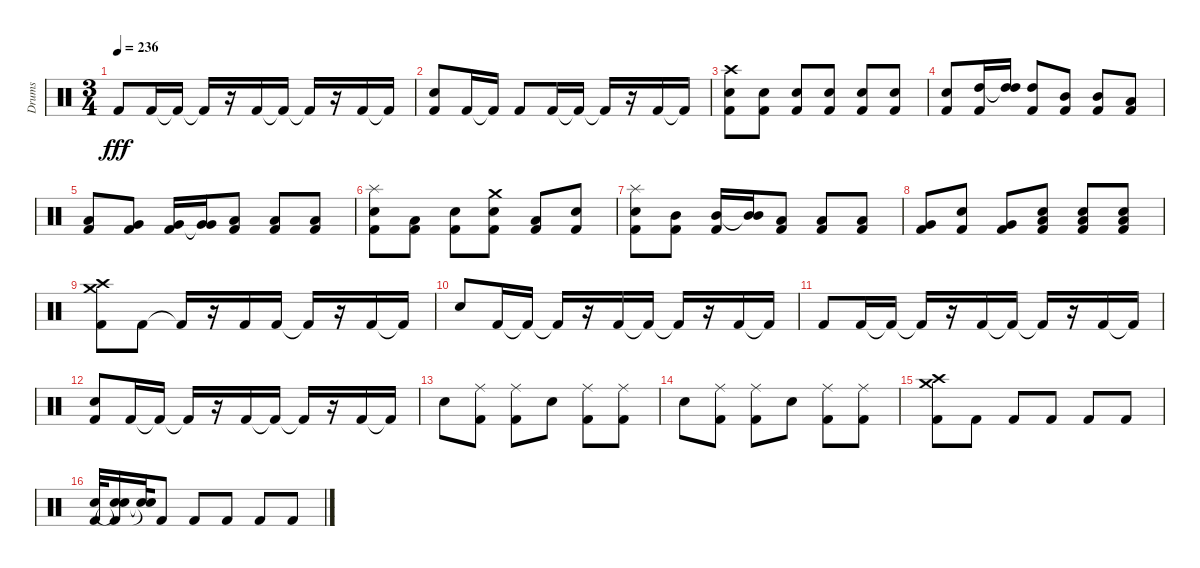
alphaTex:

\track ("Drums" "Drums") {instrument percussion}
\staff {score}
\articulation defaults
\ts (3 4)
\tempo 236
\clef neutral
\ks c "Kick (hit) 2".8{dy fff} "Kick (hit) 2".16 "Kick (hit) 2"{t}.16 "Kick (hit) 2"{t}.16
r.16 "Kick (hit) 2".16 "Kick (hit) 2"{t}.16 "Kick (hit) 2"{t}.16 r.16 "Kick (hit) 2".16 "Kick (hit) 2"{t}.16 |
("Kick (hit) 2" "Snare (hit) 2").8 "Kick (hit) 2".16 "Kick (hit) 2"{t}.16 "Kick (hit) 2".8 "Kick (hit) 2".16 "Kick (hit) 2"{t}.16 "Kick (hit) 2"{t}.16 r.16 "Kick (hit) 2".16 "Kick (hit) 2"{t}.16 |
("Kick (hit) 2" "Crash high (hit)" "Snare (hit) 2").8 ("Kick (hit) 2" "Snare (hit) 2").8 ("Kick (hit) 2" "Snare (hit) 2").8 ("Kick (hit) 2" "Snare (hit) 2").8 ("Kick (hit) 2" "Snare (hit) 2").8 ("Kick (hit) 2" "Snare (hit) 2").8 |
("Kick (hit) 2" "Snare (hit) 2").8 ("High Tom (hit)" "Kick (hit) 2").16 ("High Tom (hit)"{t} "High Tom (hit)").16 ("Kick (hit) 2" "High Tom (hit)").8 ("Kick (hit) 2" "Mid Tom (hit)").8 ("Kick (hit) 2" "Mid Tom (hit)").8 ("Kick (hit) 2" "Low Tom (hit)").8 |
("Kick (hit) 2" "Low Tom (hit)").8 ("Kick (hit) 2" "Very Low Tom (hit)").8 ("Very Low Tom (hit)" "Kick (hit) 2").16 ("Very Low Tom (hit)"{t} "Very Low Tom (hit)").16 ("Kick (hit) 2" "Low Floor Tom (hit)").8 ("Kick (hit) 2" "Low Floor Tom (hit)").8 ("Kick (hit) 2" "Low Floor Tom (hit)").8 |
("Kick (hit) 2" "Snare (hit) 2" "Splash (hit)").8 ("Kick (hit) 2" "Low Floor Tom (hit)").8 ("Kick (hit) 2" "Snare (hit) 2").8 ("Snare (hit) 2" "Kick (hit) 2" "Crash medium (hit)").8 ("Kick (hit) 2" "Low Floor Tom (hit)").8 ("Kick (hit) 2" "Snare (hit) 2").8 |
("Kick (hit) 2" "Snare (hit) 2" "Splash (hit)").8 ("Kick (hit) 2" "Mid Tom (hit)").8 ("Mid Tom (hit)" "Kick (hit) 2").16 ("Mid Tom (hit)"{t} "Mid Tom (hit)").16 ("Kick (hit) 2" "Low Tom (hit)").8 ("Kick (hit) 2" "Low Tom (hit)").8 ("Kick (hit) 2" "Low Tom (hit)").8 |
("Kick (hit) 2" "Very Low Tom (hit)").8 ("Kick (hit) 2" "Snare (hit) 2").8 ("Kick (hit) 2" "Very Low Tom (hit)").8 ("Kick (hit) 2" "Snare (hit) 2" "Low Floor Tom (hit)").8 ("Kick (hit) 2" "Snare (hit) 2" "Low Floor Tom (hit)").8 ("Snare (hit) 2" "Kick (hit) 2" "Low Floor Tom (hit)").8 |
("Kick (hit) 2" "Crash high (hit)" "Crash medium (hit)").8 "Kick (hit) 2".8 "Kick (hit) 2"{t}.16 r.16 "Kick (hit) 2".16 "Kick (hit) 2".16 "Kick (hit) 2"{t}.16 r.16 "Kick (hit) 2".16 "Kick (hit) 2"{t}.16 |
"Snare (hit) 2".8 "Kick (hit) 2".16 "Kick (hit) 2"{t}.16 "Kick (hit) 2"{t}.16 r.16 "Kick (hit) 2".16 "Kick (hit) 2"{t}.16 "Kick (hit) 2"{t}.16 r.16 "Kick (hit) 2".16 "Kick (hit) 2"{t}.16 |
"Kick (hit) 2".8 "Kick (hit) 2".16 "Kick (hit) 2"{t}.16 "Kick (hit) 2"{t}.16 r.16 "Kick (hit) 2".16 "Kick (hit) 2"{t}.16 "Kick (hit) 2"{t}.16 r.16 "Kick (hit) 2".16 "Kick (hit) 2"{t}.16 |
("Kick (hit) 2" "Snare (hit) 2").8 "Kick (hit) 2".16 "Kick (hit) 2"{t}.16 "Kick (hit) 2"{t}.16 r.16 "Kick (hit) 2".16 "Kick (hit) 2"{t}.16 "Kick (hit) 2"{t}.16 r.16 "Kick (hit) 2".16 "Kick (hit) 2"{t}.16 |
"Snare (hit) 2".8 ("Kick (hit) 2" "Ride (middle)").8 ("Kick (hit) 2" "Ride (middle)").8 "Snare (hit) 2".8 ("Kick (hit) 2" "Ride (middle)").8 ("Kick (hit) 2" "Ride (middle)").8 |
"Snare (hit) 2".8 ("Kick (hit) 2" "Ride (middle)").8 ("Kick (hit) 2" "Ride (middle)").8 "Snare (hit) 2".8 ("Kick (hit) 2" "Ride (middle)").8 ("Kick (hit) 2" "Ride (middle)").8 |
("Kick (hit) 2" "Crash high (hit)" "Crash medium (hit)").8 "Kick (hit) 2".8 "Kick (hit) 2".8 "Kick (hit) 2".8 "Kick (hit) 2".8 "Kick (hit) 2".8 |
("Snare (hit) 2" "Kick (hit) 2").32 ("Kick (hit) 2"{t} "Snare (hit) 2"{t} "Hand Clap (hit)").16 ("Snare (hit) 2"{t} "Hand Clap (hit)"{t}).32 "Kick (hit) 2".8 "Kick (hit) 2".8 "Kick (hit) 2".8 "Kick (hit) 2".8 "Kick (hit) 2".8
